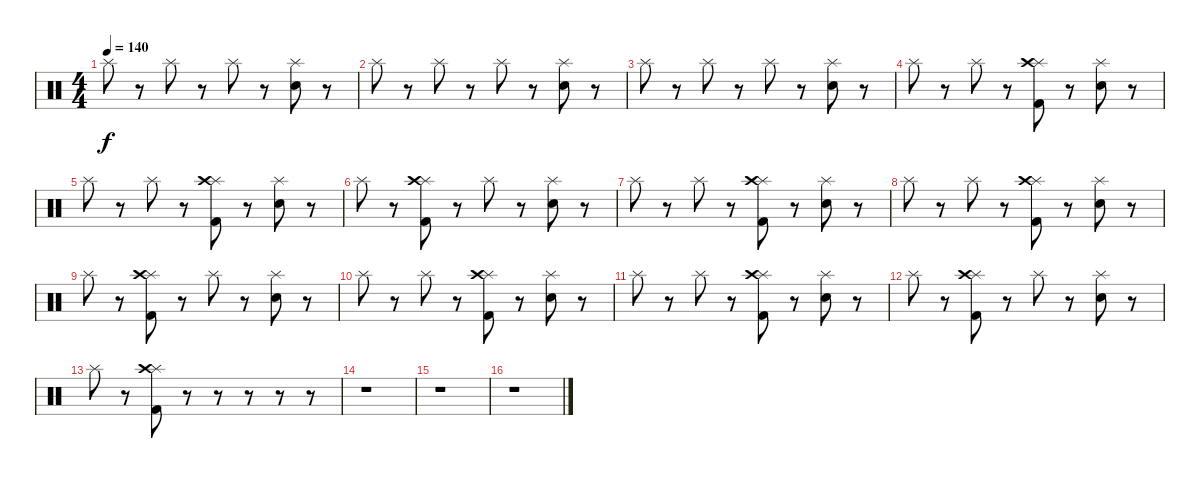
\track "" {instrument percussion}
\staff {score}
\articulation defaults
\ts (4 4)
\tempo 140
\clef neutral
\ks c "Splash (hit)".8{dy f}
r.8 "Splash (hit)".8 r.8 "Splash (hit)".8 r.8 ("Splash (hit)" "Electric Snare (hit)").8 r.8 |
"Splash (hit)".8 r.8 "Splash (hit)".8 r.8 "Splash (hit)".8 r.8 ("Splash (hit)" "Electric Snare (hit)").8 r.8 |
"Splash (hit)".8 r.8 "Splash (hit)".8 r.8 "Splash (hit)".8 r.8 ("Splash (hit)" "Electric Snare (hit)").8 r.8 |
"Splash (hit)".8 r.8 "Splash (hit)".8 r.8 ("Kick (hit) 2" "Splash (hit)" "Crash high (hit)").8 r.8 ("Splash (hit)" "Electric Snare (hit)").8 r.8 |
"Splash (hit)".8 r.8 "Splash (hit)".8 r.8 ("Kick (hit) 2" "Splash (hit)" "Crash high (hit)").8 r.8 ("Splash (hit)" "Electric Snare (hit)").8 r.8 |
"Splash (hit)".8 r.8 ("Kick (hit) 2" "Splash (hit)" "Crash high (hit)").8 r.8 "Splash (hit)".8 r.8 ("Splash (hit)" "Electric Snare (hit)").8 r.8 |
"Splash (hit)".8 r.8 "Splash (hit)".8 r.8 ("Kick (hit) 2" "Splash (hit)" "Crash high (hit)").8 r.8 ("Splash (hit)" "Electric Snare (hit)").8 r.8 |
"Splash (hit)".8 r.8 "Splash (hit)".8 r.8 ("Kick (hit) 2" "Splash (hit)" "Crash high (hit)").8 r.8 ("Splash (hit)" "Electric Snare (hit)").8 r.8 |
"Splash (hit)".8 r.8 ("Kick (hit) 2" "Splash (hit)" "Crash high (hit)").8 r.8 "Splash (hit)".8 r.8 ("Splash (hit)" "Electric Snare (hit)").8 r.8 |
"Splash (hit)".8 r.8 "Splash (hit)".8 r.8 ("Kick (hit) 2" "Splash (hit)" "Crash high (hit)").8 r.8 ("Splash (hit)" "Electric Snare (hit)").8 r.8 |
"Splash (hit)".8 r.8 "Splash (hit)".8 r.8 ("Kick (hit) 2" "Splash (hit)" "Crash high (hit)").8 r.8 ("Splash (hit)" "Electric Snare (hit)").8 r.8 |
"Splash (hit)".8 r.8 ("Kick (hit) 2" "Splash (hit)" "Crash high (hit)").8 r.8 "Splash (hit)".8 r.8 ("Splash (hit)" "Electric Snare (hit)").8 r.8 |
"Splash (hit)".8 r.8 ("Kick (hit) 2" "Splash (hit)" "Crash high (hit)").8 r.8 r.8 r.8 r.8 r.8 |
r.1 |
r.1 |
r.1
